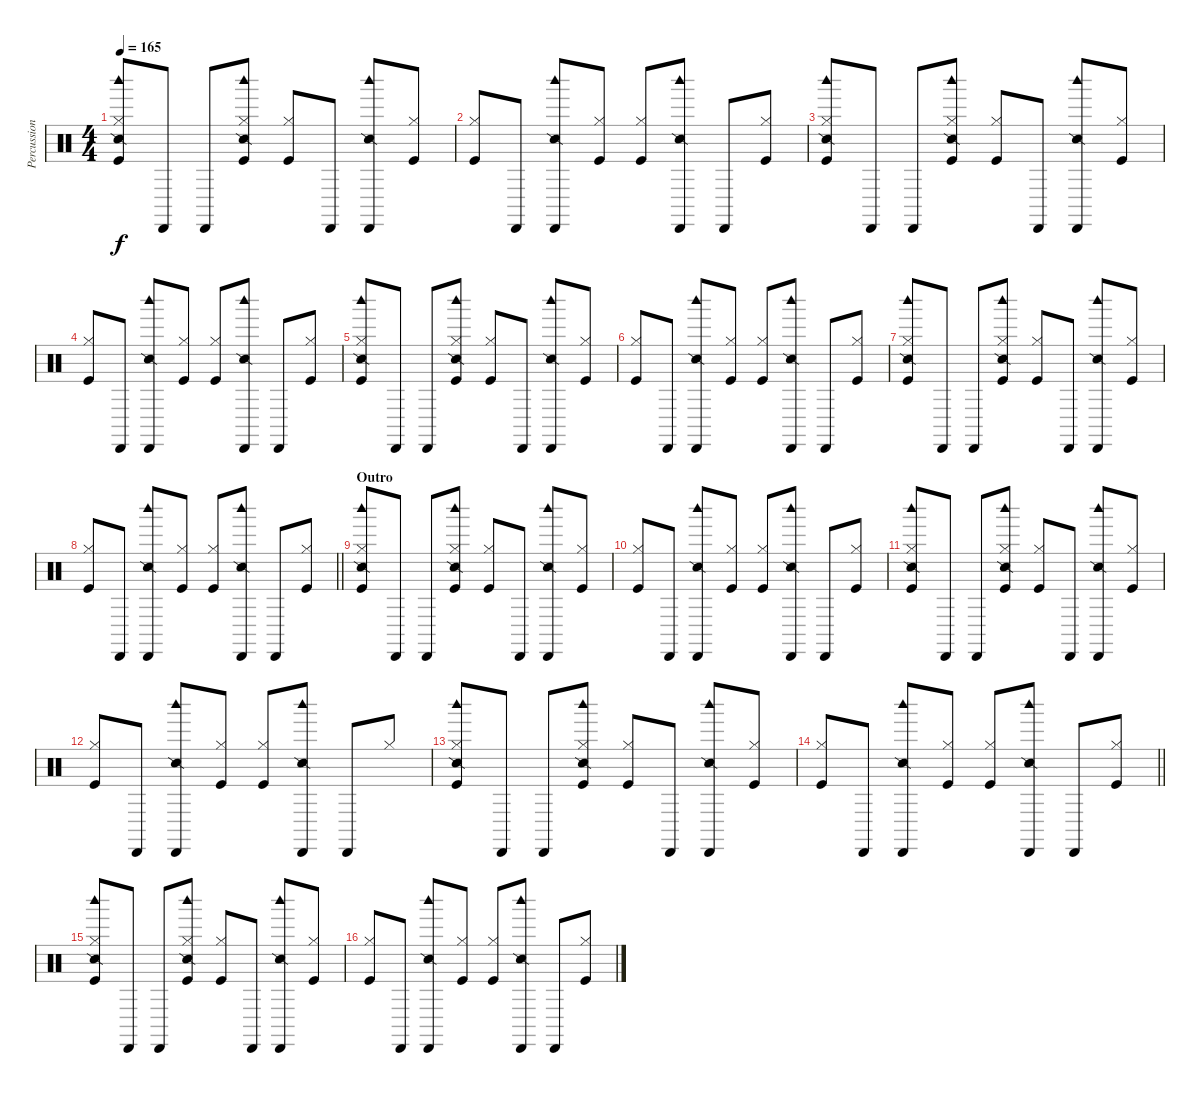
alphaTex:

\track ("Percussion" "Percussion") {instrument percussion}
\staff {score}
\articulation defaults
\ts (4 4)
\tempo 165
\clef neutral
\ks c
("Snare (side stick) 2" "Hi-Hat (closed)" "Woodblock high (hit)" "Kick (hit)").8{dy f} "Cabasa (hit)".8 "Cabasa (hit)".8 ("Snare (side stick) 2" "Hi-Hat (closed)" "Woodblock high (hit)" "Kick (hit)").8 ("Hi-Hat (closed)" "Kick (hit)").8 "Cabasa (hit)".8 ("Snare (side stick) 2" "Cabasa (hit)" "Woodblock high (hit)").8 ("Hi-Hat (closed)" "Kick (hit)").8 |
("Hi-Hat (closed)" "Kick (hit)").8 "Cabasa (hit)".8 ("Snare (side stick) 2" "Cabasa (hit)" "Woodblock high (hit)").8 ("Hi-Hat (closed)" "Kick (hit)").8 ("Hi-Hat (closed)" "Kick (hit)").8 ("Snare (side stick) 2" "Cabasa (hit)" "Woodblock high (hit)").8 "Cabasa (hit)".8 ("Hi-Hat (closed)" "Kick (hit)").8 |
("Snare (side stick) 2" "Hi-Hat (closed)" "Woodblock high (hit)" "Kick (hit)").8 "Cabasa (hit)".8 "Cabasa (hit)".8 ("Snare (side stick) 2" "Hi-Hat (closed)" "Woodblock high (hit)" "Kick (hit)").8 ("Hi-Hat (closed)" "Kick (hit)").8 "Cabasa (hit)".8 ("Snare (side stick) 2" "Cabasa (hit)" "Woodblock high (hit)").8 ("Hi-Hat (closed)" "Kick (hit)").8 |
("Hi-Hat (closed)" "Kick (hit)").8 "Cabasa (hit)".8 ("Snare (side stick) 2" "Cabasa (hit)" "Woodblock high (hit)").8 ("Hi-Hat (closed)" "Kick (hit)").8 ("Hi-Hat (closed)" "Kick (hit)").8 ("Snare (side stick) 2" "Cabasa (hit)" "Woodblock high (hit)").8 "Cabasa (hit)".8 ("Hi-Hat (closed)" "Kick (hit)").8 |
("Snare (side stick) 2" "Hi-Hat (closed)" "Woodblock high (hit)" "Kick (hit)").8 "Cabasa (hit)".8 "Cabasa (hit)".8 ("Snare (side stick) 2" "Hi-Hat (closed)" "Woodblock high (hit)" "Kick (hit)").8 ("Hi-Hat (closed)" "Kick (hit)").8 "Cabasa (hit)".8 ("Snare (side stick) 2" "Cabasa (hit)" "Woodblock high (hit)").8 ("Hi-Hat (closed)" "Kick (hit)").8 |
("Hi-Hat (closed)" "Kick (hit)").8 "Cabasa (hit)".8 ("Snare (side stick) 2" "Cabasa (hit)" "Woodblock high (hit)").8 ("Hi-Hat (closed)" "Kick (hit)").8 ("Hi-Hat (closed)" "Kick (hit)").8 ("Snare (side stick) 2" "Cabasa (hit)" "Woodblock high (hit)").8 "Cabasa (hit)".8 ("Hi-Hat (closed)" "Kick (hit)").8 |
("Snare (side stick) 2" "Hi-Hat (closed)" "Woodblock high (hit)" "Kick (hit)").8 "Cabasa (hit)".8 "Cabasa (hit)".8 ("Snare (side stick) 2" "Hi-Hat (closed)" "Woodblock high (hit)" "Kick (hit)").8 ("Hi-Hat (closed)" "Kick (hit)").8 "Cabasa (hit)".8 ("Snare (side stick) 2" "Cabasa (hit)" "Woodblock high (hit)").8 ("Hi-Hat (closed)" "Kick (hit)").8 |
\barLineRight lightlight
("Hi-Hat (closed)" "Kick (hit)").8 "Cabasa (hit)".8 ("Snare (side stick) 2" "Cabasa (hit)" "Woodblock high (hit)").8 ("Hi-Hat (closed)" "Kick (hit)").8 ("Hi-Hat (closed)" "Kick (hit)").8 ("Snare (side stick) 2" "Cabasa (hit)" "Woodblock high (hit)").8 "Cabasa (hit)".8 ("Hi-Hat (closed)" "Kick (hit)").8 |
\section ("" "Outro")
("Snare (side stick) 2" "Hi-Hat (closed)" "Woodblock high (hit)" "Kick (hit)").8 "Cabasa (hit)".8 "Cabasa (hit)".8 ("Snare (side stick) 2" "Hi-Hat (closed)" "Woodblock high (hit)" "Kick (hit)").8 ("Hi-Hat (closed)" "Kick (hit)").8 "Cabasa (hit)".8 ("Snare (side stick) 2" "Cabasa (hit)" "Woodblock high (hit)").8 ("Hi-Hat (closed)" "Kick (hit)").8 |
("Hi-Hat (closed)" "Kick (hit)").8 "Cabasa (hit)".8 ("Snare (side stick) 2" "Cabasa (hit)" "Woodblock high (hit)").8 ("Hi-Hat (closed)" "Kick (hit)").8 ("Hi-Hat (closed)" "Kick (hit)").8 ("Snare (side stick) 2" "Cabasa (hit)" "Woodblock high (hit)").8 "Cabasa (hit)".8 ("Hi-Hat (closed)" "Kick (hit)").8 |
("Snare (side stick) 2" "Hi-Hat (closed)" "Woodblock high (hit)" "Kick (hit)").8 "Cabasa (hit)".8 "Cabasa (hit)".8 ("Snare (side stick) 2" "Hi-Hat (closed)" "Woodblock high (hit)" "Kick (hit)").8 ("Hi-Hat (closed)" "Kick (hit)").8 "Cabasa (hit)".8 ("Snare (side stick) 2" "Cabasa (hit)" "Woodblock high (hit)").8 ("Hi-Hat (closed)" "Kick (hit)").8 |
("Hi-Hat (closed)" "Kick (hit)").8 "Cabasa (hit)".8 ("Snare (side stick) 2" "Cabasa (hit)" "Woodblock high (hit)").8 ("Hi-Hat (closed)" "Kick (hit)").8 ("Hi-Hat (closed)" "Kick (hit)").8 ("Snare (side stick) 2" "Cabasa (hit)" "Woodblock high (hit)").8 "Cabasa (hit)".8 "Hi-Hat (closed)".8 |
("Snare (side stick) 2" "Hi-Hat (closed)" "Woodblock high (hit)" "Kick (hit)").8 "Cabasa (hit)".8 "Cabasa (hit)".8 ("Snare (side stick) 2" "Hi-Hat (closed)" "Woodblock high (hit)" "Kick (hit)").8 ("Hi-Hat (closed)" "Kick (hit)").8 "Cabasa (hit)".8 ("Snare (side stick) 2" "Cabasa (hit)" "Woodblock high (hit)").8 ("Hi-Hat (closed)" "Kick (hit)").8 |
\barLineRight lightlight
("Hi-Hat (closed)" "Kick (hit)").8 "Cabasa (hit)".8 ("Snare (side stick) 2" "Cabasa (hit)" "Woodblock high (hit)").8 ("Hi-Hat (closed)" "Kick (hit)").8 ("Hi-Hat (closed)" "Kick (hit)").8 ("Snare (side stick) 2" "Cabasa (hit)" "Woodblock high (hit)").8 "Cabasa (hit)".8 ("Hi-Hat (closed)" "Kick (hit)").8 |
("Snare (side stick) 2" "Hi-Hat (closed)" "Woodblock high (hit)" "Kick (hit)").8 "Cabasa (hit)".8 "Cabasa (hit)".8 ("Snare (side stick) 2" "Hi-Hat (closed)" "Woodblock high (hit)" "Kick (hit)").8 ("Hi-Hat (closed)" "Kick (hit)").8 "Cabasa (hit)".8 ("Snare (side stick) 2" "Cabasa (hit)" "Woodblock high (hit)").8 ("Hi-Hat (closed)" "Kick (hit)").8 |
("Hi-Hat (closed)" "Kick (hit)").8 "Cabasa (hit)".8 ("Snare (side stick) 2" "Cabasa (hit)" "Woodblock high (hit)").8 ("Hi-Hat (closed)" "Kick (hit)").8 ("Hi-Hat (closed)" "Kick (hit)").8 ("Snare (side stick) 2" "Cabasa (hit)" "Woodblock high (hit)").8 "Cabasa (hit)".8 ("Hi-Hat (closed)" "Kick (hit)").8
